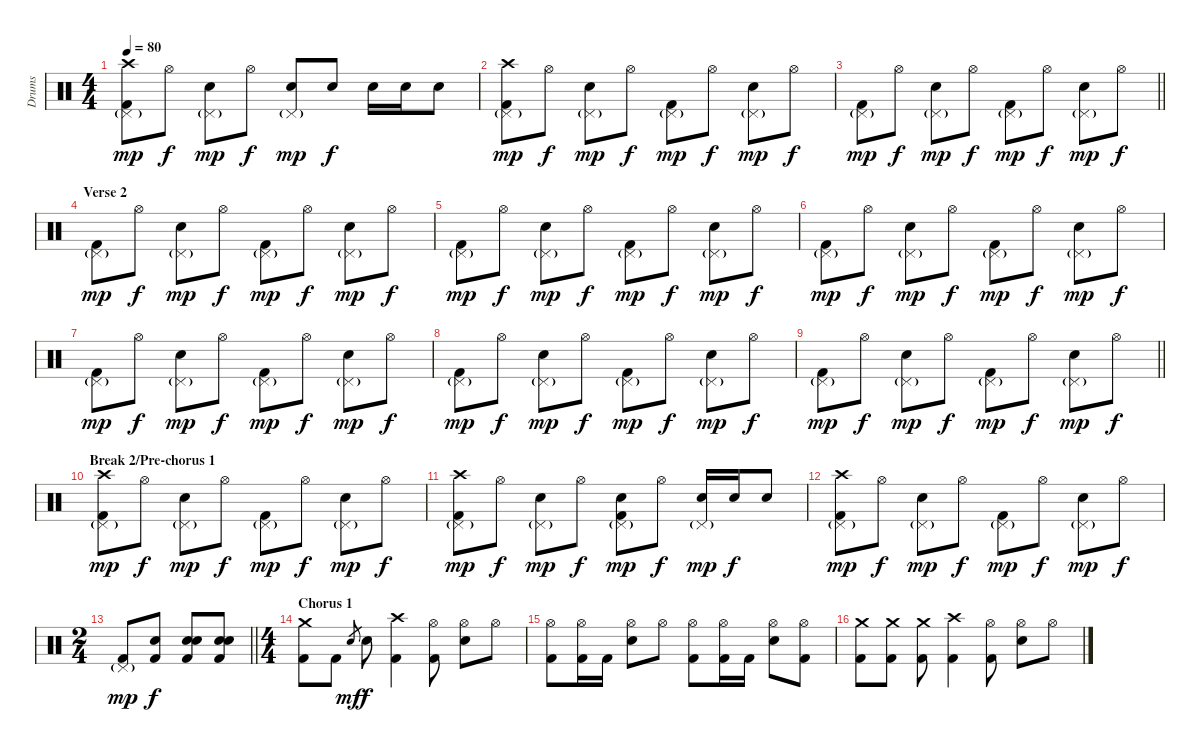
\track ("Drums" "Drums") {solo instrument percussion}
\staff {score}
\articulation defaults
\ts (4 4)
\tempo 80
\clef neutral
\ks c
("Pedal Hi-Hat (hit)"{g} "Crash high (hit)" "Kick (hit) 2").8{dy mp} "Hi-Hat (open)".8{dy f} ("Pedal Hi-Hat (hit)"{g} "Electric Snare (hit)").8{dy mp} "Hi-Hat (open)".8{dy f} ("Pedal Hi-Hat (hit)"{g} "Electric Snare (hit)").8{dy mp} "Electric Snare (hit)".8{dy f} "Electric Snare (hit)".16 "Electric Snare (hit)".16 "Electric Snare (hit)".8 |
("Pedal Hi-Hat (hit)"{g} "Crash high (hit)" "Kick (hit) 2").8{dy mp} "Hi-Hat (open)".8{dy f} ("Pedal Hi-Hat (hit)"{g} "Electric Snare (hit)").8{dy mp} "Hi-Hat (open)".8{dy f} ("Pedal Hi-Hat (hit)"{g} "Kick (hit) 2").8{dy mp} "Hi-Hat (open)".8{dy f} ("Pedal Hi-Hat (hit)"{g} "Electric Snare (hit)").8{dy mp} "Hi-Hat (open)".8{dy f} |
\barLineRight lightlight
("Pedal Hi-Hat (hit)"{g} "Kick (hit) 2").8{dy mp} "Hi-Hat (open)".8{dy f} ("Pedal Hi-Hat (hit)"{g} "Electric Snare (hit)").8{dy mp} "Hi-Hat (open)".8{dy f} ("Pedal Hi-Hat (hit)"{g} "Kick (hit) 2").8{dy mp} "Hi-Hat (open)".8{dy f} ("Pedal Hi-Hat (hit)"{g} "Electric Snare (hit)").8{dy mp} "Hi-Hat (open)".8{dy f} |
\section ("" "Verse 2")
("Pedal Hi-Hat (hit)"{g} "Kick (hit) 2").8{dy mp} "Hi-Hat (open)".8{dy f} ("Pedal Hi-Hat (hit)"{g} "Electric Snare (hit)").8{dy mp} "Hi-Hat (open)".8{dy f} ("Pedal Hi-Hat (hit)"{g} "Kick (hit) 2").8{dy mp} "Hi-Hat (open)".8{dy f} ("Pedal Hi-Hat (hit)"{g} "Electric Snare (hit)").8{dy mp} "Hi-Hat (open)".8{dy f} |
("Pedal Hi-Hat (hit)"{g} "Kick (hit) 2").8{dy mp} "Hi-Hat (open)".8{dy f} ("Pedal Hi-Hat (hit)"{g} "Electric Snare (hit)").8{dy mp} "Hi-Hat (open)".8{dy f} ("Pedal Hi-Hat (hit)"{g} "Kick (hit) 2").8{dy mp} "Hi-Hat (open)".8{dy f} ("Pedal Hi-Hat (hit)"{g} "Electric Snare (hit)").8{dy mp} "Hi-Hat (open)".8{dy f} |
("Pedal Hi-Hat (hit)"{g} "Kick (hit) 2").8{dy mp} "Hi-Hat (open)".8{dy f} ("Pedal Hi-Hat (hit)"{g} "Electric Snare (hit)").8{dy mp} "Hi-Hat (open)".8{dy f} ("Pedal Hi-Hat (hit)"{g} "Kick (hit) 2").8{dy mp} "Hi-Hat (open)".8{dy f} ("Pedal Hi-Hat (hit)"{g} "Electric Snare (hit)").8{dy mp} "Hi-Hat (open)".8{dy f} |
("Pedal Hi-Hat (hit)"{g} "Kick (hit) 2").8{dy mp} "Hi-Hat (open)".8{dy f} ("Pedal Hi-Hat (hit)"{g} "Electric Snare (hit)").8{dy mp} "Hi-Hat (open)".8{dy f} ("Pedal Hi-Hat (hit)"{g} "Kick (hit) 2").8{dy mp} "Hi-Hat (open)".8{dy f} ("Pedal Hi-Hat (hit)"{g} "Electric Snare (hit)").8{dy mp} "Hi-Hat (open)".8{dy f} |
("Pedal Hi-Hat (hit)"{g} "Kick (hit) 2").8{dy mp} "Hi-Hat (open)".8{dy f} ("Pedal Hi-Hat (hit)"{g} "Electric Snare (hit)").8{dy mp} "Hi-Hat (open)".8{dy f} ("Pedal Hi-Hat (hit)"{g} "Kick (hit) 2").8{dy mp} "Hi-Hat (open)".8{dy f} ("Pedal Hi-Hat (hit)"{g} "Electric Snare (hit)").8{dy mp} "Hi-Hat (open)".8{dy f} |
\barLineRight lightlight
("Pedal Hi-Hat (hit)"{g} "Kick (hit) 2").8{dy mp} "Hi-Hat (open)".8{dy f} ("Pedal Hi-Hat (hit)"{g} "Electric Snare (hit)").8{dy mp} "Hi-Hat (open)".8{dy f} ("Pedal Hi-Hat (hit)"{g} "Kick (hit) 2").8{dy mp} "Hi-Hat (open)".8{dy f} ("Pedal Hi-Hat (hit)"{g} "Electric Snare (hit)").8{dy mp} "Hi-Hat (open)".8{dy f} |
\section ("" "Break 2/Pre-chorus 1")
("Pedal Hi-Hat (hit)"{g} "Crash high (hit)" "Kick (hit) 2").8{dy mp} "Hi-Hat (open)".8{dy f} ("Pedal Hi-Hat (hit)"{g} "Electric Snare (hit)").8{dy mp} "Hi-Hat (open)".8{dy f} ("Pedal Hi-Hat (hit)"{g} "Kick (hit) 2").8{dy mp} "Hi-Hat (open)".8{dy f} ("Pedal Hi-Hat (hit)"{g} "Electric Snare (hit)").8{dy mp} "Hi-Hat (open)".8{dy f} |
("Pedal Hi-Hat (hit)"{g} "Crash high (hit)" "Kick (hit) 2").8{dy mp} "Hi-Hat (open)".8{dy f} ("Pedal Hi-Hat (hit)"{g} "Electric Snare (hit)").8{dy mp} "Hi-Hat (open)".8{dy f} ("Pedal Hi-Hat (hit)"{g} "Electric Snare (hit)" "Kick (hit) 2").8{dy mp} "Hi-Hat (open)".8{dy f} ("Pedal Hi-Hat (hit)"{g} "Electric Snare (hit)").16{dy mp} "Electric Snare (hit)".16{dy f} "Electric Snare (hit)".8 |
("Pedal Hi-Hat (hit)"{g} "Crash high (hit)" "Kick (hit) 2").8{dy mp} "Hi-Hat (open)".8{dy f} ("Pedal Hi-Hat (hit)"{g} "Electric Snare (hit)").8{dy mp} "Hi-Hat (open)".8{dy f} ("Pedal Hi-Hat (hit)"{g} "Kick (hit) 2").8{dy mp} "Hi-Hat (open)".8{dy f} ("Pedal Hi-Hat (hit)"{g} "Electric Snare (hit)").8{dy mp} "Hi-Hat (open)".8{dy f} |
\ts (2 4)
\barLineRight lightlight
("Pedal Hi-Hat (hit)"{g} "Kick (hit) 2").8{dy mp} ("Electric Snare (hit)" "Kick (hit) 2").8{dy f} ("Snare (hit) 2" "Electric Snare (hit)" "Kick (hit) 2").8 ("Snare (hit) 2" "Electric Snare (hit)" "Kick (hit) 2").8 |
\ts (4 4)
\section ("" "Chorus 1")
("Crash medium (hit)" "Kick (hit) 2").8 "Kick (hit) 2".8 "Electric Snare (hit)".8{gr dy mf} "Electric Snare (hit)".8{dy f} ("Crash high (hit)" "Kick (hit) 2").4 ("Hi-Hat (open)" "Kick (hit) 2").8 ("Hi-Hat (open)" "Electric Snare (hit)").8 "Hi-Hat (open)".8 |
("Hi-Hat (open)" "Kick (hit) 2").8 ("Hi-Hat (open)" "Kick (hit) 2").16 "Kick (hit) 2".16 ("Hi-Hat (open)" "Electric Snare (hit)").8 "Hi-Hat (open)".8 ("Hi-Hat (open)" "Kick (hit) 2").8 ("Hi-Hat (open)" "Kick (hit) 2").16 "Kick (hit) 2".16 ("Hi-Hat (open)" "Electric Snare (hit)").8 ("Hi-Hat (open)" "Kick (hit) 2").8 |
("Crash medium (hit)" "Kick (hit) 2").8 ("Crash medium (hit)" "Kick (hit) 2").8 ("Crash medium (hit)" "Kick (hit) 2").8 ("Crash high (hit)" "Kick (hit) 2").4 ("Hi-Hat (open)" "Kick (hit) 2").8 ("Hi-Hat (open)" "Electric Snare (hit)").8 "Hi-Hat (open)".8
